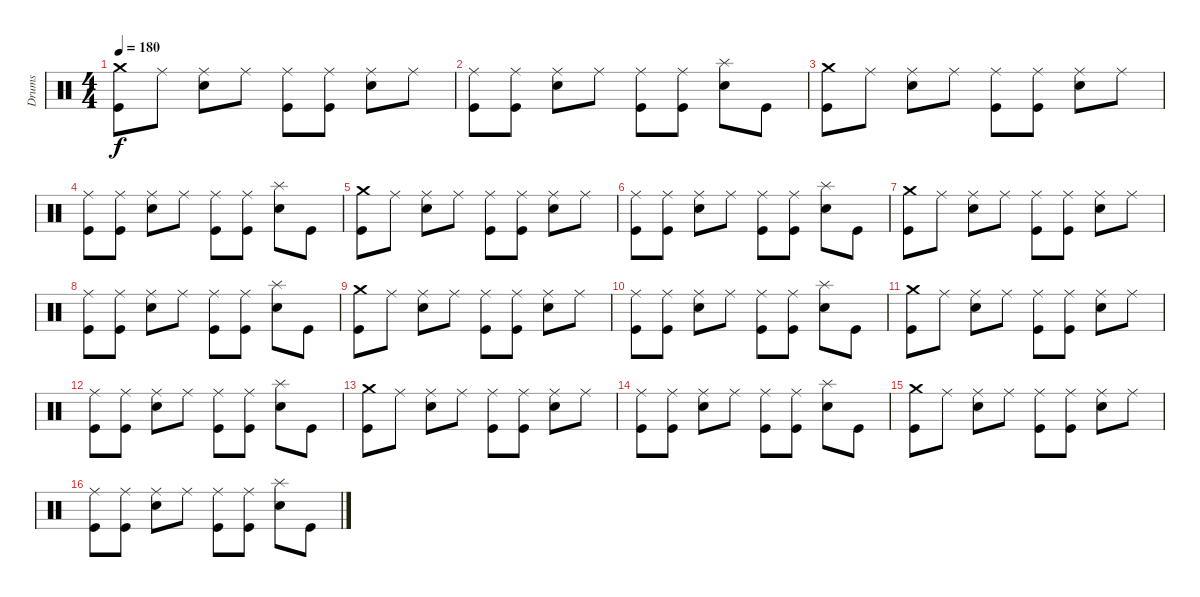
\track ("Drums" "Drums") {instrument percussion}
\staff {score}
\articulation defaults
\ts (4 4)
\tempo 180
\clef neutral
\ks c
("Crash medium (hit)" "Kick (hit)").8{dy f} "Ride (middle)".8 ("Ride (middle)" "Electric Snare (hit)").8 "Ride (middle)".8 ("Ride (middle)" "Kick (hit)").8 ("Ride (middle)" "Kick (hit)").8 ("Ride (middle)" "Electric Snare (hit)").8 "Ride (middle)".8 |
("Ride (middle)" "Kick (hit)").8 ("Ride (middle)" "Kick (hit)").8 ("Ride (middle)" "Electric Snare (hit)").8 "Ride (middle)".8 ("Ride (middle)" "Kick (hit)").8 ("Ride (middle)" "Kick (hit)").8 ("Splash (hit)" "Electric Snare (hit)").8 "Kick (hit)".8 |
("Crash medium (hit)" "Kick (hit)").8 "Ride (middle)".8 ("Ride (middle)" "Electric Snare (hit)").8 "Ride (middle)".8 ("Ride (middle)" "Kick (hit)").8 ("Ride (middle)" "Kick (hit)").8 ("Ride (middle)" "Electric Snare (hit)").8 "Ride (middle)".8 |
("Ride (middle)" "Kick (hit)").8 ("Ride (middle)" "Kick (hit)").8 ("Ride (middle)" "Electric Snare (hit)").8 "Ride (middle)".8 ("Ride (middle)" "Kick (hit)").8 ("Ride (middle)" "Kick (hit)").8 ("Splash (hit)" "Electric Snare (hit)").8 "Kick (hit)".8 |
("Crash medium (hit)" "Kick (hit)").8 "Ride (middle)".8 ("Ride (middle)" "Electric Snare (hit)").8 "Ride (middle)".8 ("Ride (middle)" "Kick (hit)").8 ("Ride (middle)" "Kick (hit)").8 ("Ride (middle)" "Electric Snare (hit)").8 "Ride (middle)".8 |
("Ride (middle)" "Kick (hit)").8 ("Ride (middle)" "Kick (hit)").8 ("Ride (middle)" "Electric Snare (hit)").8 "Ride (middle)".8 ("Ride (middle)" "Kick (hit)").8 ("Ride (middle)" "Kick (hit)").8 ("Splash (hit)" "Electric Snare (hit)").8 "Kick (hit)".8 |
("Crash medium (hit)" "Kick (hit)").8 "Ride (middle)".8 ("Ride (middle)" "Electric Snare (hit)").8 "Ride (middle)".8 ("Ride (middle)" "Kick (hit)").8 ("Ride (middle)" "Kick (hit)").8 ("Ride (middle)" "Electric Snare (hit)").8 "Ride (middle)".8 |
("Ride (middle)" "Kick (hit)").8 ("Ride (middle)" "Kick (hit)").8 ("Ride (middle)" "Electric Snare (hit)").8 "Ride (middle)".8 ("Ride (middle)" "Kick (hit)").8 ("Ride (middle)" "Kick (hit)").8 ("Splash (hit)" "Electric Snare (hit)").8 "Kick (hit)".8 |
("Crash medium (hit)" "Kick (hit)").8 "Ride (middle)".8 ("Ride (middle)" "Electric Snare (hit)").8 "Ride (middle)".8 ("Ride (middle)" "Kick (hit)").8 ("Ride (middle)" "Kick (hit)").8 ("Ride (middle)" "Electric Snare (hit)").8 "Ride (middle)".8 |
("Ride (middle)" "Kick (hit)").8 ("Ride (middle)" "Kick (hit)").8 ("Ride (middle)" "Electric Snare (hit)").8 "Ride (middle)".8 ("Ride (middle)" "Kick (hit)").8 ("Ride (middle)" "Kick (hit)").8 ("Splash (hit)" "Electric Snare (hit)").8 "Kick (hit)".8 |
("Crash medium (hit)" "Kick (hit)").8 "Ride (middle)".8 ("Ride (middle)" "Electric Snare (hit)").8 "Ride (middle)".8 ("Ride (middle)" "Kick (hit)").8 ("Ride (middle)" "Kick (hit)").8 ("Ride (middle)" "Electric Snare (hit)").8 "Ride (middle)".8 |
("Ride (middle)" "Kick (hit)").8 ("Ride (middle)" "Kick (hit)").8 ("Ride (middle)" "Electric Snare (hit)").8 "Ride (middle)".8 ("Ride (middle)" "Kick (hit)").8 ("Ride (middle)" "Kick (hit)").8 ("Splash (hit)" "Electric Snare (hit)").8 "Kick (hit)".8 |
("Crash medium (hit)" "Kick (hit)").8 "Ride (middle)".8 ("Ride (middle)" "Electric Snare (hit)").8 "Ride (middle)".8 ("Ride (middle)" "Kick (hit)").8 ("Ride (middle)" "Kick (hit)").8 ("Ride (middle)" "Electric Snare (hit)").8 "Ride (middle)".8 |
("Ride (middle)" "Kick (hit)").8 ("Ride (middle)" "Kick (hit)").8 ("Ride (middle)" "Electric Snare (hit)").8 "Ride (middle)".8 ("Ride (middle)" "Kick (hit)").8 ("Ride (middle)" "Kick (hit)").8 ("Splash (hit)" "Electric Snare (hit)").8 "Kick (hit)".8 |
("Crash medium (hit)" "Kick (hit)").8 "Ride (middle)".8 ("Ride (middle)" "Electric Snare (hit)").8 "Ride (middle)".8 ("Ride (middle)" "Kick (hit)").8 ("Ride (middle)" "Kick (hit)").8 ("Ride (middle)" "Electric Snare (hit)").8 "Ride (middle)".8 |
("Ride (middle)" "Kick (hit)").8 ("Ride (middle)" "Kick (hit)").8 ("Ride (middle)" "Electric Snare (hit)").8 "Ride (middle)".8 ("Ride (middle)" "Kick (hit)").8 ("Ride (middle)" "Kick (hit)").8 ("Splash (hit)" "Electric Snare (hit)").8 "Kick (hit)".8
